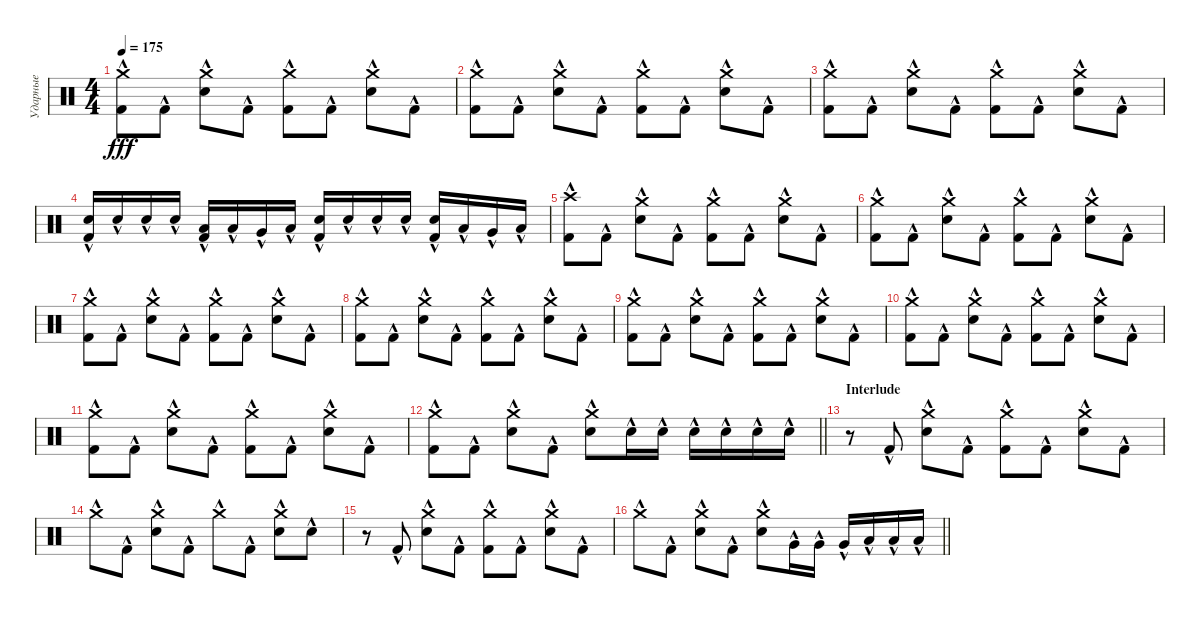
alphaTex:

\track ("Ударные" "Ударные") {instrument percussion}
\staff {score}
\articulation defaults
\ts (4 4)
\tempo 175
\clef neutral
\ks c
("Crash medium (hit)"{hac} "Kick (hit) 2"{hac}).8{dy fff} "Kick (hit) 2"{hac}.8 ("Crash medium (hit)"{hac} "Snare (hit) 2"{hac}).8 "Kick (hit) 2"{hac}.8 ("Crash medium (hit)"{hac} "Kick (hit) 2"{hac}).8 "Kick (hit) 2"{hac}.8 ("Crash medium (hit)"{hac} "Snare (hit) 2"{hac}).8 "Kick (hit) 2"{hac}.8 |
("Crash medium (hit)"{hac} "Kick (hit) 2"{hac}).8 "Kick (hit) 2"{hac}.8 ("Crash medium (hit)"{hac} "Snare (hit) 2"{hac}).8 "Kick (hit) 2"{hac}.8 ("Crash medium (hit)"{hac} "Kick (hit) 2"{hac}).8 "Kick (hit) 2"{hac}.8 ("Crash medium (hit)"{hac} "Snare (hit) 2"{hac}).8 "Kick (hit) 2"{hac}.8 |
("Crash medium (hit)"{hac} "Kick (hit) 2"{hac}).8 "Kick (hit) 2"{hac}.8 ("Crash medium (hit)"{hac} "Snare (hit) 2"{hac}).8 "Kick (hit) 2"{hac}.8 ("Crash medium (hit)"{hac} "Kick (hit) 2"{hac}).8 "Kick (hit) 2"{hac}.8 ("Crash medium (hit)"{hac} "Snare (hit) 2"{hac}).8 "Kick (hit) 2"{hac}.8 |
("Snare (hit) 2"{hac} "Kick (hit) 2"{hac}).16 "Snare (hit) 2"{hac}.16 "Snare (hit) 2"{hac}.16 "Snare (hit) 2"{hac}.16 ("Low Tom (hit)"{hac} "Kick (hit) 2"{hac}).16 "Low Tom (hit)"{hac}.16 "Very Low Tom (hit)"{hac}.16 "Low Floor Tom (hit)"{hac}.16 ("Snare (hit) 2"{hac} "Kick (hit) 2"{hac}).16 "Snare (hit) 2"{hac}.16 "Snare (hit) 2"{hac}.16 "Snare (hit) 2"{hac}.16 ("Snare (hit) 2"{hac} "Kick (hit) 2"{hac}).16 "Low Tom (hit)"{hac}.16 "Very Low Tom (hit)"{hac}.16 "Low Floor Tom (hit)"{hac}.16 |
("Crash high (hit)"{hac} "Kick (hit) 2"{hac}).8 "Kick (hit) 2"{hac}.8 ("Crash medium (hit)"{hac} "Snare (hit) 2"{hac}).8 "Kick (hit) 2"{hac}.8 ("Crash medium (hit)"{hac} "Kick (hit) 2"{hac}).8 "Kick (hit) 2"{hac}.8 ("Crash medium (hit)"{hac} "Snare (hit) 2"{hac}).8 "Kick (hit) 2"{hac}.8 |
("Crash medium (hit)"{hac} "Kick (hit) 2"{hac}).8 "Kick (hit) 2"{hac}.8 ("Crash medium (hit)"{hac} "Snare (hit) 2"{hac}).8 "Kick (hit) 2"{hac}.8 ("Crash medium (hit)"{hac} "Kick (hit) 2"{hac}).8 "Kick (hit) 2"{hac}.8 ("Crash medium (hit)"{hac} "Snare (hit) 2"{hac}).8 "Kick (hit) 2"{hac}.8 |
("Crash medium (hit)"{hac} "Kick (hit) 2"{hac}).8 "Kick (hit) 2"{hac}.8 ("Crash medium (hit)"{hac} "Snare (hit) 2"{hac}).8 "Kick (hit) 2"{hac}.8 ("Crash medium (hit)"{hac} "Kick (hit) 2"{hac}).8 "Kick (hit) 2"{hac}.8 ("Crash medium (hit)"{hac} "Snare (hit) 2"{hac}).8 "Kick (hit) 2"{hac}.8 |
("Crash medium (hit)"{hac} "Kick (hit) 2"{hac}).8 "Kick (hit) 2"{hac}.8 ("Crash medium (hit)"{hac} "Snare (hit) 2"{hac}).8 "Kick (hit) 2"{hac}.8 ("Crash medium (hit)"{hac} "Kick (hit) 2"{hac}).8 "Kick (hit) 2"{hac}.8 ("Crash medium (hit)"{hac} "Snare (hit) 2"{hac}).8 "Kick (hit) 2"{hac}.8 |
("Crash medium (hit)"{hac} "Kick (hit) 2"{hac}).8 "Kick (hit) 2"{hac}.8 ("Crash medium (hit)"{hac} "Snare (hit) 2"{hac}).8 "Kick (hit) 2"{hac}.8 ("Crash medium (hit)"{hac} "Kick (hit) 2"{hac}).8 "Kick (hit) 2"{hac}.8 ("Crash medium (hit)"{hac} "Snare (hit) 2"{hac}).8 "Kick (hit) 2"{hac}.8 |
("Crash medium (hit)"{hac} "Kick (hit) 2"{hac}).8 "Kick (hit) 2"{hac}.8 ("Crash medium (hit)"{hac} "Snare (hit) 2"{hac}).8 "Kick (hit) 2"{hac}.8 ("Crash medium (hit)"{hac} "Kick (hit) 2"{hac}).8 "Kick (hit) 2"{hac}.8 ("Crash medium (hit)"{hac} "Snare (hit) 2"{hac}).8 "Kick (hit) 2"{hac}.8 |
("Crash medium (hit)"{hac} "Kick (hit) 2"{hac}).8 "Kick (hit) 2"{hac}.8 ("Crash medium (hit)"{hac} "Snare (hit) 2"{hac}).8 "Kick (hit) 2"{hac}.8 ("Crash medium (hit)"{hac} "Kick (hit) 2"{hac}).8 "Kick (hit) 2"{hac}.8 ("Crash medium (hit)"{hac} "Snare (hit) 2"{hac}).8 "Kick (hit) 2"{hac}.8 |
\barLineRight lightlight
("Crash medium (hit)"{hac} "Kick (hit) 2"{hac}).8 "Kick (hit) 2"{hac}.8 ("Crash medium (hit)"{hac} "Snare (hit) 2"{hac}).8 "Kick (hit) 2"{hac}.8 ("Crash medium (hit)"{hac} "Snare (hit) 2"{hac}).8 "Snare (hit) 2"{hac}.16 "Snare (hit) 2"{hac}.16 "Snare (hit) 2"{hac}.16 "Snare (hit) 2"{hac}.16 "Snare (hit) 2"{hac}.16 "Snare (hit) 2"{hac}.16 |
\section ("" "Interlude")
r.8 "Kick (hit) 2"{hac}.8 ("Crash medium (hit)"{hac} "Snare (hit) 2"{hac}).8 "Kick (hit) 2"{hac}.8 ("Crash medium (hit)"{hac} "Kick (hit) 2"{hac}).8 "Kick (hit) 2"{hac}.8 ("Crash medium (hit)"{hac} "Snare (hit) 2"{hac}).8 "Kick (hit) 2"{hac}.8 |
"Crash medium (hit)"{hac}.8 "Kick (hit) 2"{hac}.8 ("Crash medium (hit)"{hac} "Snare (hit) 2"{hac}).8 "Kick (hit) 2"{hac}.8 "Crash medium (hit)"{hac}.8 "Kick (hit) 2"{hac}.8 ("Crash medium (hit)"{hac} "Snare (hit) 2"{hac}).8 "Snare (hit) 2"{hac}.8 |
r.8 "Kick (hit) 2"{hac}.8 ("Crash medium (hit)"{hac} "Snare (hit) 2"{hac}).8 "Kick (hit) 2"{hac}.8 ("Crash medium (hit)"{hac} "Kick (hit) 2"{hac}).8 "Kick (hit) 2"{hac}.8 ("Crash medium (hit)"{hac} "Snare (hit) 2"{hac}).8 "Kick (hit) 2"{hac}.8 |
\barLineRight lightlight "Crash medium (hit)"{hac}.8 "Kick (hit) 2"{hac}.8
("Crash medium (hit)"{hac} "Snare (hit) 2"{hac}).8 "Kick (hit) 2"{hac}.8 ("Crash medium (hit)"{hac} "Snare (hit) 2"{hac}).8 "Very Low Tom (hit)"{hac}.16 "Very Low Tom (hit)"{hac}.16 "Very Low Tom (hit)"{hac}.16 "Low Floor Tom (hit)"{hac}.16 "Low Floor Tom (hit)"{hac}.16 "Low Floor Tom (hit)"{hac}.16
